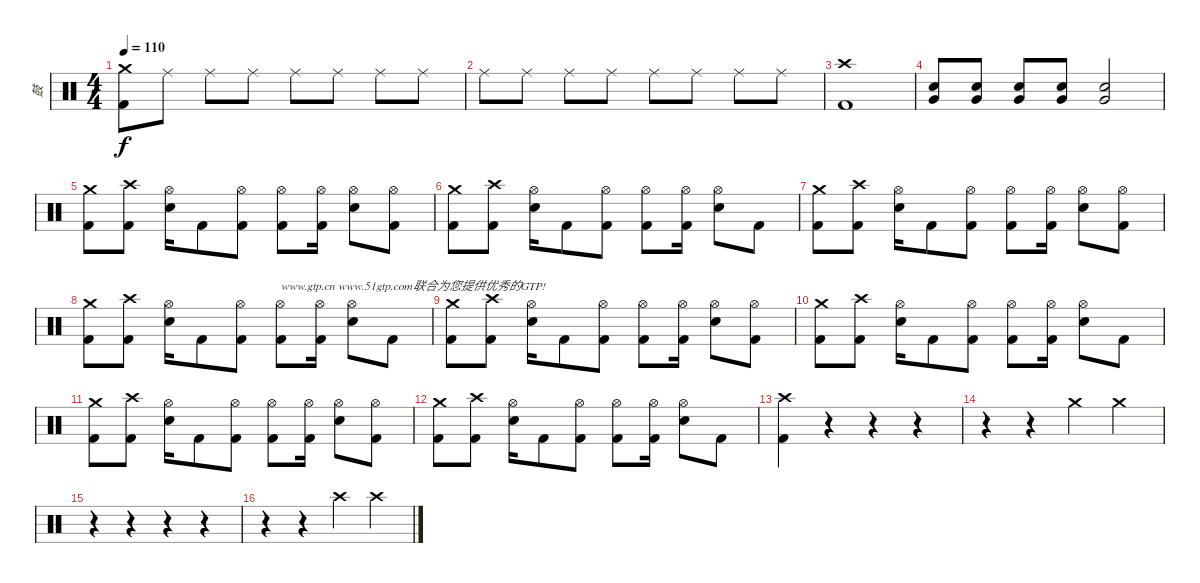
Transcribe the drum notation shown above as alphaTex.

\track ("鼓" "鼓") {instrument percussion}
\staff {score}
\articulation defaults
\ts (4 4)
\tempo 110
\clef neutral
\ks c
("Kick (hit) 2" "Crash medium (hit)").8{dy f} "Ride (middle)".8 "Ride (middle)".8 "Ride (middle)".8 "Ride (middle)".8 "Ride (middle)".8 "Ride (middle)".8 "Ride (middle)".8 |
"Ride (middle)".8 "Ride (middle)".8 "Ride (middle)".8 "Ride (middle)".8 "Ride (middle)".8 "Ride (middle)".8 "Ride (middle)".8 "Ride (middle)".8 |
("Kick (hit) 2" "Crash high (hit)").1 |
("Electric Snare (hit)" "Very Low Tom (hit)").8 ("Electric Snare (hit)" "Very Low Tom (hit)").8 ("Electric Snare (hit)" "Very Low Tom (hit)").8 ("Electric Snare (hit)" "Very Low Tom (hit)").8 ("Electric Snare (hit)" "Very Low Tom (hit)").2 |
("Kick (hit) 2" "Crash medium (hit)").8 ("Kick (hit) 2" "Crash high (hit)").8 ("Electric Snare (hit)" "Hi-Hat (open)").16 "Kick (hit) 2".8 ("Kick (hit) 2" "Hi-Hat (open)").8 ("Kick (hit) 2" "Hi-Hat (open)").8 ("Kick (hit) 2" "Hi-Hat (open)").16 ("Electric Snare (hit)" "Hi-Hat (open)").8 ("Kick (hit) 2" "Hi-Hat (open)").8 |
("Kick (hit) 2" "Crash medium (hit)").8 ("Kick (hit) 2" "Crash high (hit)").8 ("Electric Snare (hit)" "Hi-Hat (open)").16 "Kick (hit) 2".8 ("Kick (hit) 2" "Hi-Hat (open)").8 ("Kick (hit) 2" "Hi-Hat (open)").8 ("Kick (hit) 2" "Hi-Hat (open)").16 ("Electric Snare (hit)" "Hi-Hat (open)").8 "Kick (hit) 2".8 |
("Kick (hit) 2" "Crash medium (hit)").8 ("Kick (hit) 2" "Crash high (hit)").8 ("Electric Snare (hit)" "Hi-Hat (open)").16 "Kick (hit) 2".8 ("Kick (hit) 2" "Hi-Hat (open)").8 ("Kick (hit) 2" "Hi-Hat (open)").8 ("Kick (hit) 2" "Hi-Hat (open)").16 ("Electric Snare (hit)" "Hi-Hat (open)").8 ("Kick (hit) 2" "Hi-Hat (open)").8 |
("Kick (hit) 2" "Crash medium (hit)").8 ("Kick (hit) 2" "Crash high (hit)").8 ("Electric Snare (hit)" "Hi-Hat (open)").16 "Kick (hit) 2".8 ("Kick (hit) 2" "Hi-Hat (open)").8 ("Kick (hit) 2" "Hi-Hat (open)").8{txt "www.gtp.cn www.51gtp.com联合为您提供优秀的GTP!"} ("Kick (hit) 2" "Hi-Hat (open)").16 ("Electric Snare (hit)" "Hi-Hat (open)").8 "Kick (hit) 2".8 |
("Kick (hit) 2" "Crash medium (hit)").8 ("Kick (hit) 2" "Crash high (hit)").8 ("Electric Snare (hit)" "Hi-Hat (open)").16 "Kick (hit) 2".8 ("Kick (hit) 2" "Hi-Hat (open)").8 ("Kick (hit) 2" "Hi-Hat (open)").8 ("Kick (hit) 2" "Hi-Hat (open)").16 ("Electric Snare (hit)" "Hi-Hat (open)").8 ("Kick (hit) 2" "Hi-Hat (open)").8 |
("Kick (hit) 2" "Crash medium (hit)").8 ("Kick (hit) 2" "Crash high (hit)").8 ("Electric Snare (hit)" "Hi-Hat (open)").16 "Kick (hit) 2".8 ("Kick (hit) 2" "Hi-Hat (open)").8 ("Kick (hit) 2" "Hi-Hat (open)").8 ("Kick (hit) 2" "Hi-Hat (open)").16 ("Electric Snare (hit)" "Hi-Hat (open)").8 "Kick (hit) 2".8 |
("Kick (hit) 2" "Crash medium (hit)").8 ("Kick (hit) 2" "Crash high (hit)").8 ("Electric Snare (hit)" "Hi-Hat (open)").16 "Kick (hit) 2".8 ("Kick (hit) 2" "Hi-Hat (open)").8 ("Kick (hit) 2" "Hi-Hat (open)").8 ("Kick (hit) 2" "Hi-Hat (open)").16 ("Electric Snare (hit)" "Hi-Hat (open)").8 ("Kick (hit) 2" "Hi-Hat (open)").8 |
("Kick (hit) 2" "Crash medium (hit)").8 ("Kick (hit) 2" "Crash high (hit)").8 ("Electric Snare (hit)" "Hi-Hat (open)").16 "Kick (hit) 2".8 ("Kick (hit) 2" "Hi-Hat (open)").8 ("Kick (hit) 2" "Hi-Hat (open)").8 ("Kick (hit) 2" "Hi-Hat (open)").16 ("Electric Snare (hit)" "Hi-Hat (open)").8 "Kick (hit) 2".8 |
("Kick (hit) 2" "Crash high (hit)").4 r.4 r.4 r.4 |
r.4 r.4 "Crash medium (hit)".4 "Crash medium (hit)".4 |
r.4 r.4 r.4 r.4 |
r.4 r.4 "Crash high (hit)".4 "Crash high (hit)".4
